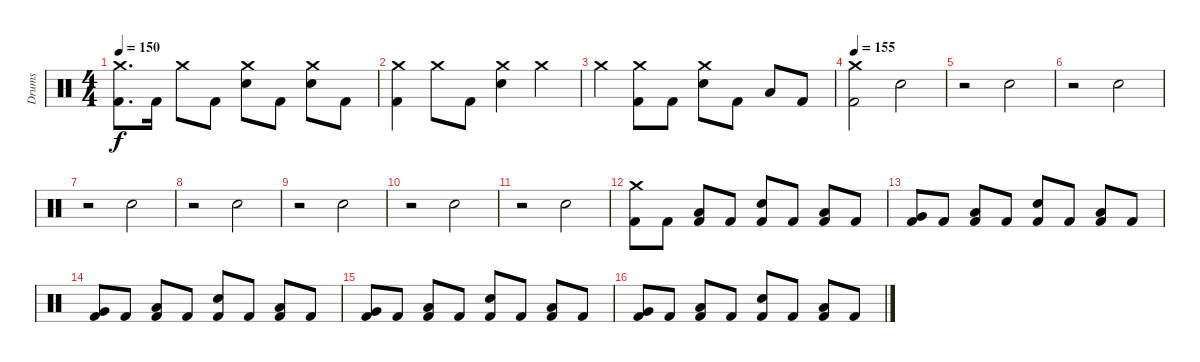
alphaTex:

\track ("Drums" "Drums") {instrument percussion bank 255}
\staff {score}
\articulation defaults
\ts (4 4)
\tempo 150
\clef neutral
\ks c
("Crash medium (hit)" "Kick (hit) 2").8{d dy f} "Kick (hit) 2".16 "Crash medium (hit)".8 "Kick (hit) 2".8 ("Crash medium (hit)" "Electric Snare (hit)").8 "Kick (hit) 2".8 ("Crash medium (hit)" "Electric Snare (hit)").8 "Kick (hit) 2".8 |
("Crash medium (hit)" "Kick (hit) 2").4 "Crash medium (hit)".8 "Kick (hit) 2".8 ("Crash medium (hit)" "Electric Snare (hit)").4 "Crash medium (hit)".4 |
"Crash medium (hit)".4 ("Crash medium (hit)" "Kick (hit) 2").8 "Kick (hit) 2".8 ("Crash medium (hit)" "Electric Snare (hit)").8 "Kick (hit) 2".8 "Low Floor Tom (hit)".8 "Kick (hit) 2".8 |
\tempo 155
("Crash medium (hit)" "Kick (hit) 2").2 "Electric Snare (hit)".2 |
r.2 "Electric Snare (hit)".2 |
r.2 "Electric Snare (hit)".2 |
r.2 "Electric Snare (hit)".2 |
r.2 "Electric Snare (hit)".2 |
r.2 "Electric Snare (hit)".2 |
r.2 "Electric Snare (hit)".2 |
r.2 "Electric Snare (hit)".2 |
("Crash medium (hit)" "Kick (hit) 2").8 "Kick (hit) 2".8 ("Low Floor Tom (hit)" "Kick (hit) 2").8 "Kick (hit) 2".8 ("Electric Snare (hit)" "Kick (hit) 2").8 "Kick (hit) 2".8 ("Low Tom (hit)" "Kick (hit) 2").8 "Kick (hit) 2".8 |
("Very Low Tom (hit)" "Kick (hit) 2").8 "Kick (hit) 2".8 ("Low Floor Tom (hit)" "Kick (hit) 2").8 "Kick (hit) 2".8 ("Electric Snare (hit)" "Kick (hit) 2").8 "Kick (hit) 2".8 ("Low Tom (hit)" "Kick (hit) 2").8 "Kick (hit) 2".8 |
("Very Low Tom (hit)" "Kick (hit) 2").8 "Kick (hit) 2".8 ("Low Floor Tom (hit)" "Kick (hit) 2").8 "Kick (hit) 2".8 ("Electric Snare (hit)" "Kick (hit) 2").8 "Kick (hit) 2".8 ("Low Tom (hit)" "Kick (hit) 2").8 "Kick (hit) 2".8 |
("Very Low Tom (hit)" "Kick (hit) 2").8 "Kick (hit) 2".8 ("Low Floor Tom (hit)" "Kick (hit) 2").8 "Kick (hit) 2".8 ("Electric Snare (hit)" "Kick (hit) 2").8 "Kick (hit) 2".8 ("Low Tom (hit)" "Kick (hit) 2").8 "Kick (hit) 2".8 |
("Very Low Tom (hit)" "Kick (hit) 2").8 "Kick (hit) 2".8 ("Low Floor Tom (hit)" "Kick (hit) 2").8 "Kick (hit) 2".8 ("Electric Snare (hit)" "Kick (hit) 2").8 "Kick (hit) 2".8 ("Low Tom (hit)" "Kick (hit) 2").8 "Kick (hit) 2".8
